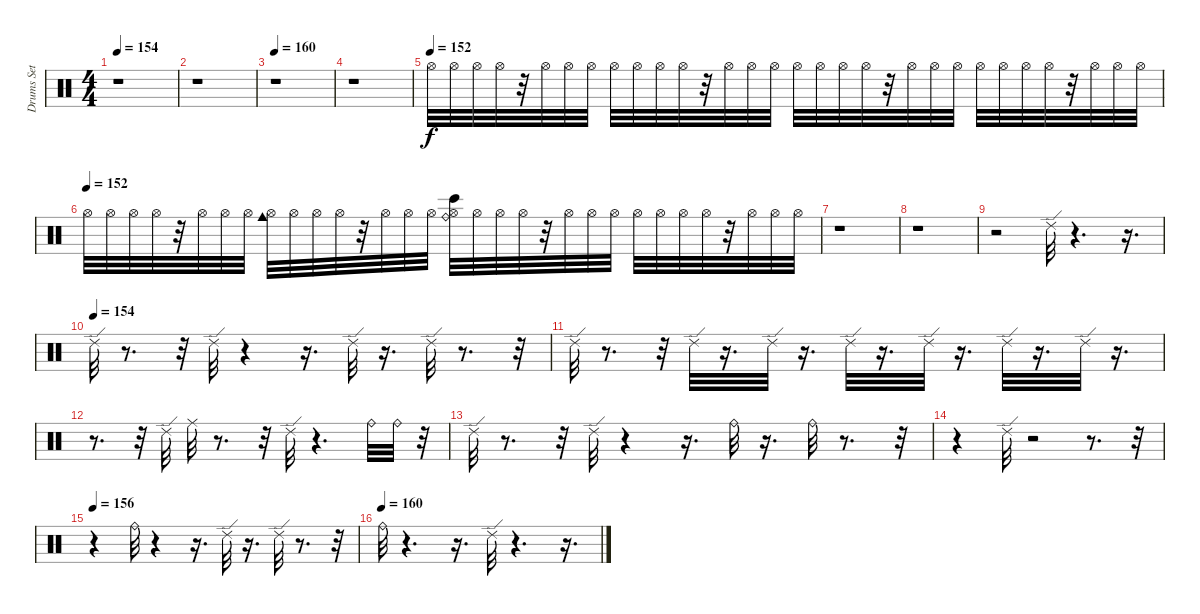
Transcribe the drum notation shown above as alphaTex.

\track ("Drums Set" "Drums Set") {instrument percussion}
\staff {score}
\articulation defaults
\ts (4 4)
\tempo 154
\clef neutral
\ks c
r.1{dy ppp} |
r.1 |
\tempo 160
r.1 |
r.1 |
\tempo (152)
"Hi-Hat (open)".32{dy f} "Hi-Hat (open)".32 "Hi-Hat (open)".32 "Hi-Hat (open)".32 r.32 "Hi-Hat (open)".32 "Hi-Hat (open)".32 "Hi-Hat (open)".32 "Hi-Hat (open)".32 "Hi-Hat (open)".32 "Hi-Hat (open)".32 "Hi-Hat (open)".32 r.32 "Hi-Hat (open)".32 "Hi-Hat (open)".32 "Hi-Hat (open)".32 "Hi-Hat (open)".32 "Hi-Hat (open)".32 "Hi-Hat (open)".32 "Hi-Hat (open)".32 r.32 "Hi-Hat (open)".32 "Hi-Hat (open)".32 "Hi-Hat (open)".32 "Hi-Hat (open)".32 "Hi-Hat (open)".32 "Hi-Hat (open)".32 "Hi-Hat (open)".32 r.32 "Hi-Hat (open)".32 "Hi-Hat (open)".32 "Hi-Hat (open)".32 |
\tempo (152)
"Hi-Hat (open)".32 "Hi-Hat (open)".32 "Hi-Hat (open)".32 "Hi-Hat (open)".32 r.32 "Hi-Hat (open)".32 "Hi-Hat (open)".32 "Hi-Hat (open)".32 ("Hi-Hat (open)" "Cowbell medium (hit)").32 "Hi-Hat (open)".32 "Hi-Hat (open)".32 "Hi-Hat (open)".32 r.32 "Hi-Hat (open)".32 "Hi-Hat (open)".32 "Hi-Hat (open)".32 ("Hi-Hat (open)" "Ride (bell)" "Bongo High (hit)").32 "Hi-Hat (open)".32 "Hi-Hat (open)".32 "Hi-Hat (open)".32 r.32 "Hi-Hat (open)".32 "Hi-Hat (open)".32 "Hi-Hat (open)".32 "Hi-Hat (open)".32 "Hi-Hat (open)".32 "Hi-Hat (open)".32 "Hi-Hat (open)".32 r.32 "Hi-Hat (open)".32 "Hi-Hat (open)".32 "Hi-Hat (open)".32 |
r.1 |
r.1 |
r.2 "Ride (edge) 2".32 r.4{d} r.16{d} |
\tempo (154)
"Ride (edge) 2".32 r.8{d} r.32 "Ride (edge) 2".32 r.4 r.16{d} "Ride (edge) 2".32 r.16{d} "Ride (edge) 2".32 r.8{d} r.32 |
"Ride (edge) 2".32 r.8{d} r.32 "Ride (edge) 2".32 r.16{d} "Ride (edge) 2".32 r.16{d} "Ride (edge) 2".32 r.16{d} "Ride (edge) 2".32 r.16{d} "Ride (edge) 2".32 r.16{d} "Ride (edge) 2".32 r.16{d} |
r.8{d} r.32 "Ride (edge) 2".32 "Ride (middle)".32 r.8{d} r.32 "Ride (edge) 2".32 r.4{d} "Ride (bell)".32 "Ride (bell)".32 r.32 |
"Ride (edge) 2".32 r.8{d} r.32 "Ride (edge) 2".32 r.4 r.16{d} "Ride (bell)".32 r.16{d} "Ride (bell)".32 r.8{d} r.32 |
r.4 "Ride (edge) 2".32 r.2 r.8{d} r.32 |
\tempo 156
r.4 "Ride (bell)".32 r.4 r.16{d} "Ride (edge) 2".32 r.16{d} "Ride (edge) 2".32 r.8{d} r.32 |
\tempo (160)
"Ride (bell)".32 r.4{d} r.16{d} "Ride (edge) 2".32 r.4{d} r.16{d}
